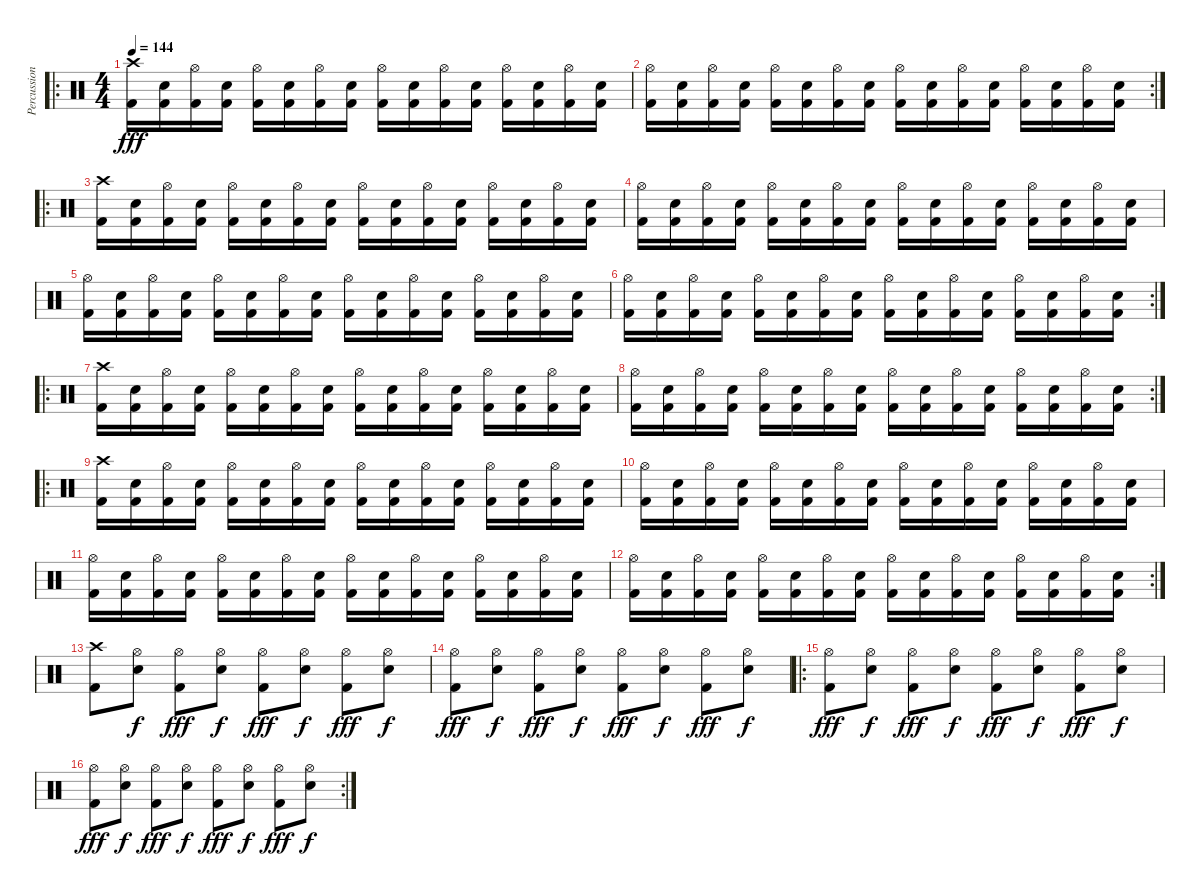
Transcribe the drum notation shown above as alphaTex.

\track ("Percussion" "Percussion") {instrument percussion}
\staff {score}
\articulation defaults
\ro
\ts (4 4)
\tempo 144
\clef neutral
\ks c
("Crash high (hit)" "Kick (hit) 2").16{dy fff} ("Snare (hit) 2" "Kick (hit) 2").16 ("Hi-Hat (open)" "Kick (hit) 2").16 ("Snare (hit) 2" "Kick (hit) 2").16 ("Hi-Hat (open)" "Kick (hit) 2").16 ("Snare (hit) 2" "Kick (hit) 2").16 ("Hi-Hat (open)" "Kick (hit) 2").16 ("Snare (hit) 2" "Kick (hit) 2").16 ("Hi-Hat (open)" "Kick (hit) 2").16 ("Snare (hit) 2" "Kick (hit) 2").16 ("Hi-Hat (open)" "Kick (hit) 2").16 ("Snare (hit) 2" "Kick (hit) 2").16 ("Hi-Hat (open)" "Kick (hit) 2").16 ("Snare (hit) 2" "Kick (hit) 2").16 ("Hi-Hat (open)" "Kick (hit) 2").16 ("Snare (hit) 2" "Kick (hit) 2").16 |
\rc 2
("Hi-Hat (open)" "Kick (hit) 2").16 ("Snare (hit) 2" "Kick (hit) 2").16 ("Hi-Hat (open)" "Kick (hit) 2").16 ("Snare (hit) 2" "Kick (hit) 2").16 ("Hi-Hat (open)" "Kick (hit) 2").16 ("Snare (hit) 2" "Kick (hit) 2").16 ("Hi-Hat (open)" "Kick (hit) 2").16 ("Snare (hit) 2" "Kick (hit) 2").16 ("Hi-Hat (open)" "Kick (hit) 2").16 ("Snare (hit) 2" "Kick (hit) 2").16 ("Hi-Hat (open)" "Kick (hit) 2").16 ("Snare (hit) 2" "Kick (hit) 2").16 ("Hi-Hat (open)" "Kick (hit) 2").16 ("Snare (hit) 2" "Kick (hit) 2").16 ("Hi-Hat (open)" "Kick (hit) 2").16 ("Snare (hit) 2" "Kick (hit) 2").16 |
\ro
("Crash high (hit)" "Kick (hit) 2").16 ("Snare (hit) 2" "Kick (hit) 2").16 ("Hi-Hat (open)" "Kick (hit) 2").16 ("Snare (hit) 2" "Kick (hit) 2").16 ("Hi-Hat (open)" "Kick (hit) 2").16 ("Snare (hit) 2" "Kick (hit) 2").16 ("Hi-Hat (open)" "Kick (hit) 2").16 ("Snare (hit) 2" "Kick (hit) 2").16 ("Hi-Hat (open)" "Kick (hit) 2").16 ("Snare (hit) 2" "Kick (hit) 2").16 ("Hi-Hat (open)" "Kick (hit) 2").16 ("Snare (hit) 2" "Kick (hit) 2").16 ("Hi-Hat (open)" "Kick (hit) 2").16 ("Snare (hit) 2" "Kick (hit) 2").16 ("Hi-Hat (open)" "Kick (hit) 2").16 ("Snare (hit) 2" "Kick (hit) 2").16 |
("Hi-Hat (open)" "Kick (hit) 2").16 ("Snare (hit) 2" "Kick (hit) 2").16 ("Hi-Hat (open)" "Kick (hit) 2").16 ("Snare (hit) 2" "Kick (hit) 2").16 ("Hi-Hat (open)" "Kick (hit) 2").16 ("Snare (hit) 2" "Kick (hit) 2").16 ("Hi-Hat (open)" "Kick (hit) 2").16 ("Snare (hit) 2" "Kick (hit) 2").16 ("Hi-Hat (open)" "Kick (hit) 2").16 ("Snare (hit) 2" "Kick (hit) 2").16 ("Hi-Hat (open)" "Kick (hit) 2").16 ("Snare (hit) 2" "Kick (hit) 2").16 ("Hi-Hat (open)" "Kick (hit) 2").16 ("Snare (hit) 2" "Kick (hit) 2").16 ("Hi-Hat (open)" "Kick (hit) 2").16 ("Snare (hit) 2" "Kick (hit) 2").16 |
("Hi-Hat (open)" "Kick (hit) 2").16 ("Snare (hit) 2" "Kick (hit) 2").16 ("Hi-Hat (open)" "Kick (hit) 2").16 ("Snare (hit) 2" "Kick (hit) 2").16 ("Hi-Hat (open)" "Kick (hit) 2").16 ("Snare (hit) 2" "Kick (hit) 2").16 ("Hi-Hat (open)" "Kick (hit) 2").16 ("Snare (hit) 2" "Kick (hit) 2").16 ("Hi-Hat (open)" "Kick (hit) 2").16 ("Snare (hit) 2" "Kick (hit) 2").16 ("Hi-Hat (open)" "Kick (hit) 2").16 ("Snare (hit) 2" "Kick (hit) 2").16 ("Hi-Hat (open)" "Kick (hit) 2").16 ("Snare (hit) 2" "Kick (hit) 2").16 ("Hi-Hat (open)" "Kick (hit) 2").16 ("Snare (hit) 2" "Kick (hit) 2").16 |
\rc 2
("Hi-Hat (open)" "Kick (hit) 2").16 ("Snare (hit) 2" "Kick (hit) 2").16 ("Hi-Hat (open)" "Kick (hit) 2").16 ("Snare (hit) 2" "Kick (hit) 2").16 ("Hi-Hat (open)" "Kick (hit) 2").16 ("Snare (hit) 2" "Kick (hit) 2").16 ("Hi-Hat (open)" "Kick (hit) 2").16 ("Snare (hit) 2" "Kick (hit) 2").16 ("Hi-Hat (open)" "Kick (hit) 2").16 ("Snare (hit) 2" "Kick (hit) 2").16 ("Hi-Hat (open)" "Kick (hit) 2").16 ("Snare (hit) 2" "Kick (hit) 2").16 ("Hi-Hat (open)" "Kick (hit) 2").16 ("Snare (hit) 2" "Kick (hit) 2").16 ("Hi-Hat (open)" "Kick (hit) 2").16 ("Snare (hit) 2" "Kick (hit) 2").16 |
\ro
("Crash high (hit)" "Kick (hit) 2").16 ("Snare (hit) 2" "Kick (hit) 2").16 ("Hi-Hat (open)" "Kick (hit) 2").16 ("Snare (hit) 2" "Kick (hit) 2").16 ("Hi-Hat (open)" "Kick (hit) 2").16 ("Snare (hit) 2" "Kick (hit) 2").16 ("Hi-Hat (open)" "Kick (hit) 2").16 ("Snare (hit) 2" "Kick (hit) 2").16 ("Hi-Hat (open)" "Kick (hit) 2").16 ("Snare (hit) 2" "Kick (hit) 2").16 ("Hi-Hat (open)" "Kick (hit) 2").16 ("Snare (hit) 2" "Kick (hit) 2").16 ("Hi-Hat (open)" "Kick (hit) 2").16 ("Snare (hit) 2" "Kick (hit) 2").16 ("Hi-Hat (open)" "Kick (hit) 2").16 ("Snare (hit) 2" "Kick (hit) 2").16 |
\rc 2
("Hi-Hat (open)" "Kick (hit) 2").16 ("Snare (hit) 2" "Kick (hit) 2").16 ("Hi-Hat (open)" "Kick (hit) 2").16 ("Snare (hit) 2" "Kick (hit) 2").16 ("Hi-Hat (open)" "Kick (hit) 2").16 ("Snare (hit) 2" "Kick (hit) 2").16 ("Hi-Hat (open)" "Kick (hit) 2").16 ("Snare (hit) 2" "Kick (hit) 2").16 ("Hi-Hat (open)" "Kick (hit) 2").16 ("Snare (hit) 2" "Kick (hit) 2").16 ("Hi-Hat (open)" "Kick (hit) 2").16 ("Snare (hit) 2" "Kick (hit) 2").16 ("Hi-Hat (open)" "Kick (hit) 2").16 ("Snare (hit) 2" "Kick (hit) 2").16 ("Hi-Hat (open)" "Kick (hit) 2").16 ("Snare (hit) 2" "Kick (hit) 2").16 |
\ro
("Crash high (hit)" "Kick (hit) 2").16 ("Snare (hit) 2" "Kick (hit) 2").16 ("Hi-Hat (open)" "Kick (hit) 2").16 ("Snare (hit) 2" "Kick (hit) 2").16 ("Hi-Hat (open)" "Kick (hit) 2").16 ("Snare (hit) 2" "Kick (hit) 2").16 ("Hi-Hat (open)" "Kick (hit) 2").16 ("Snare (hit) 2" "Kick (hit) 2").16 ("Hi-Hat (open)" "Kick (hit) 2").16 ("Snare (hit) 2" "Kick (hit) 2").16 ("Hi-Hat (open)" "Kick (hit) 2").16 ("Snare (hit) 2" "Kick (hit) 2").16 ("Hi-Hat (open)" "Kick (hit) 2").16 ("Snare (hit) 2" "Kick (hit) 2").16 ("Hi-Hat (open)" "Kick (hit) 2").16 ("Snare (hit) 2" "Kick (hit) 2").16 |
("Hi-Hat (open)" "Kick (hit) 2").16 ("Snare (hit) 2" "Kick (hit) 2").16 ("Hi-Hat (open)" "Kick (hit) 2").16 ("Snare (hit) 2" "Kick (hit) 2").16 ("Hi-Hat (open)" "Kick (hit) 2").16 ("Snare (hit) 2" "Kick (hit) 2").16 ("Hi-Hat (open)" "Kick (hit) 2").16 ("Snare (hit) 2" "Kick (hit) 2").16 ("Hi-Hat (open)" "Kick (hit) 2").16 ("Snare (hit) 2" "Kick (hit) 2").16 ("Hi-Hat (open)" "Kick (hit) 2").16 ("Snare (hit) 2" "Kick (hit) 2").16 ("Hi-Hat (open)" "Kick (hit) 2").16 ("Snare (hit) 2" "Kick (hit) 2").16 ("Hi-Hat (open)" "Kick (hit) 2").16 ("Snare (hit) 2" "Kick (hit) 2").16 |
("Hi-Hat (open)" "Kick (hit) 2").16 ("Snare (hit) 2" "Kick (hit) 2").16 ("Hi-Hat (open)" "Kick (hit) 2").16 ("Snare (hit) 2" "Kick (hit) 2").16 ("Hi-Hat (open)" "Kick (hit) 2").16 ("Snare (hit) 2" "Kick (hit) 2").16 ("Hi-Hat (open)" "Kick (hit) 2").16 ("Snare (hit) 2" "Kick (hit) 2").16 ("Hi-Hat (open)" "Kick (hit) 2").16 ("Snare (hit) 2" "Kick (hit) 2").16 ("Hi-Hat (open)" "Kick (hit) 2").16 ("Snare (hit) 2" "Kick (hit) 2").16 ("Hi-Hat (open)" "Kick (hit) 2").16 ("Snare (hit) 2" "Kick (hit) 2").16 ("Hi-Hat (open)" "Kick (hit) 2").16 ("Snare (hit) 2" "Kick (hit) 2").16 |
\rc 2
("Hi-Hat (open)" "Kick (hit) 2").16 ("Snare (hit) 2" "Kick (hit) 2").16 ("Hi-Hat (open)" "Kick (hit) 2").16 ("Snare (hit) 2" "Kick (hit) 2").16 ("Hi-Hat (open)" "Kick (hit) 2").16 ("Snare (hit) 2" "Kick (hit) 2").16 ("Hi-Hat (open)" "Kick (hit) 2").16 ("Snare (hit) 2" "Kick (hit) 2").16 ("Hi-Hat (open)" "Kick (hit) 2").16 ("Snare (hit) 2" "Kick (hit) 2").16 ("Hi-Hat (open)" "Kick (hit) 2").16 ("Snare (hit) 2" "Kick (hit) 2").16 ("Hi-Hat (open)" "Kick (hit) 2").16 ("Snare (hit) 2" "Kick (hit) 2").16 ("Hi-Hat (open)" "Kick (hit) 2").16 ("Snare (hit) 2" "Kick (hit) 2").16 |
("Crash high (hit)" "Kick (hit) 2").8 ("Hi-Hat (open)" "Snare (hit) 2").8{dy f} ("Hi-Hat (open)" "Kick (hit) 2").8{dy fff} ("Hi-Hat (open)" "Snare (hit) 2").8{dy f} ("Hi-Hat (open)" "Kick (hit) 2").8{dy fff} ("Hi-Hat (open)" "Snare (hit) 2").8{dy f} ("Hi-Hat (open)" "Kick (hit) 2").8{dy fff} ("Hi-Hat (open)" "Snare (hit) 2").8{dy f} |
("Hi-Hat (open)" "Kick (hit) 2").8{dy fff} ("Hi-Hat (open)" "Snare (hit) 2").8{dy f} ("Hi-Hat (open)" "Kick (hit) 2").8{dy fff} ("Hi-Hat (open)" "Snare (hit) 2").8{dy f} ("Hi-Hat (open)" "Kick (hit) 2").8{dy fff} ("Hi-Hat (open)" "Snare (hit) 2").8{dy f} ("Hi-Hat (open)" "Kick (hit) 2").8{dy fff} ("Hi-Hat (open)" "Snare (hit) 2").8{dy f} |
\ro
("Hi-Hat (open)" "Kick (hit) 2").8{dy fff} ("Hi-Hat (open)" "Snare (hit) 2").8{dy f} ("Hi-Hat (open)" "Kick (hit) 2").8{dy fff} ("Hi-Hat (open)" "Snare (hit) 2").8{dy f} ("Hi-Hat (open)" "Kick (hit) 2").8{dy fff} ("Hi-Hat (open)" "Snare (hit) 2").8{dy f} ("Hi-Hat (open)" "Kick (hit) 2").8{dy fff} ("Hi-Hat (open)" "Snare (hit) 2").8{dy f} |
\rc 2
("Hi-Hat (open)" "Kick (hit) 2").8{dy fff} ("Hi-Hat (open)" "Snare (hit) 2").8{dy f} ("Hi-Hat (open)" "Kick (hit) 2").8{dy fff} ("Hi-Hat (open)" "Snare (hit) 2").8{dy f} ("Hi-Hat (open)" "Kick (hit) 2").8{dy fff} ("Hi-Hat (open)" "Snare (hit) 2").8{dy f} ("Hi-Hat (open)" "Kick (hit) 2").8{dy fff} ("Hi-Hat (open)" "Snare (hit) 2").8{dy f}
